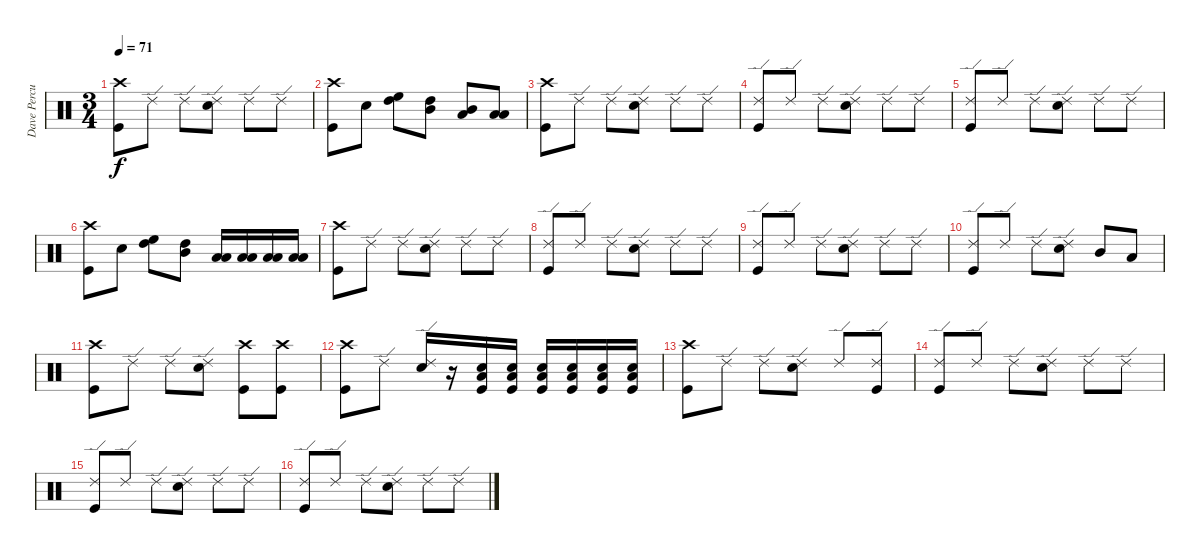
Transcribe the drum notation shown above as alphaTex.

\track ("Dave Percussions" "Dave Percu") {instrument percussion}
\staff {score}
\articulation defaults
\ts (3 4)
\tempo 71
\clef neutral
\ks c
("Crash high (hit)" "Kick (hit)").8{dy f} "Ride (edge) 2".8 "Ride (edge) 2".8 ("Ride (edge) 2" "Snare (hit) 2").8 "Ride (edge) 2".8 "Ride (edge) 2".8 |
("Crash high (hit)" "Kick (hit)").8 "Snare (hit) 2".8 ("High Tom (hit)" "High Floor Tom (hit)").8 ("Mid Tom (hit)" "High Tom (hit)").8 ("Low Tom (hit)" "Mid Tom (hit)").8 ("Low Floor Tom (hit)" "Low Tom (hit)").8 |
("Crash high (hit)" "Kick (hit)").8 "Ride (edge) 2".8 "Ride (edge) 2".8 ("Ride (edge) 2" "Snare (hit) 2").8 "Ride (edge) 2".8 "Ride (edge) 2".8 |
("Ride (edge) 2" "Kick (hit)").8 "Ride (edge) 2".8 "Ride (edge) 2".8 ("Ride (edge) 2" "Snare (hit) 2").8 "Ride (edge) 2".8 "Ride (edge) 2".8 |
("Ride (edge) 2" "Kick (hit)").8 "Ride (edge) 2".8 "Ride (edge) 2".8 ("Ride (edge) 2" "Snare (hit) 2").8 "Ride (edge) 2".8 "Ride (edge) 2".8 |
("Crash high (hit)" "Kick (hit)").8 "Snare (hit) 2".8 ("High Tom (hit)" "High Floor Tom (hit)").8 ("Mid Tom (hit)" "High Tom (hit)").8 ("Low Tom (hit)" "Low Tom (hit)").16 ("Low Floor Tom (hit)" "Low Tom (hit)").16 ("Low Floor Tom (hit)" "Low Tom (hit)").16 ("Low Floor Tom (hit)" "Low Tom (hit)").16 |
("Crash high (hit)" "Kick (hit)").8 "Ride (edge) 2".8 "Ride (edge) 2".8 ("Ride (edge) 2" "Snare (hit) 2").8 "Ride (edge) 2".8 "Ride (edge) 2".8 |
("Ride (edge) 2" "Kick (hit)").8 "Ride (edge) 2".8 "Ride (edge) 2".8 ("Ride (edge) 2" "Snare (hit) 2").8 "Ride (edge) 2".8 "Ride (edge) 2".8 |
("Ride (edge) 2" "Kick (hit)").8 "Ride (edge) 2".8 "Ride (edge) 2".8 ("Ride (edge) 2" "Snare (hit) 2").8 "Ride (edge) 2".8 "Ride (edge) 2".8 |
("Ride (edge) 2" "Kick (hit)").8 "Ride (edge) 2".8 "Ride (edge) 2".8 ("Ride (edge) 2" "Snare (hit) 2").8 "Mid Tom (hit)".8 "Low Tom (hit)".8 |
("Crash high (hit)" "Kick (hit)").8 "Ride (edge) 2".8 "Ride (edge) 2".8 ("Ride (edge) 2" "Snare (hit) 2").8 ("Crash high (hit)" "Kick (hit)").8 ("Crash high (hit)" "Kick (hit)").8 |
("Crash high (hit)" "Kick (hit)").8 "Ride (edge) 2".8 ("Ride (edge) 2" "Snare (hit) 2").16 r.16 ("Snare (hit) 2" "Kick (hit)" "Low Floor Tom (hit)").16 ("Snare (hit) 2" "Kick (hit)" "Low Floor Tom (hit)").16 ("Snare (hit) 2" "Kick (hit)" "Low Floor Tom (hit)").16 ("Snare (hit) 2" "Kick (hit)" "Low Floor Tom (hit)").16 ("Snare (hit) 2" "Kick (hit)" "Low Floor Tom (hit)").16 ("Snare (hit) 2" "Kick (hit)" "Low Floor Tom (hit)").16 |
("Crash high (hit)" "Kick (hit)").8 "Ride (edge) 2".8 "Ride (edge) 2".8 ("Ride (edge) 2" "Snare (hit) 2").8 "Ride (edge) 2".8 ("Ride (edge) 2" "Kick (hit)").8 |
("Ride (edge) 2" "Kick (hit)").8 "Ride (edge) 2".8 "Ride (edge) 2".8 ("Ride (edge) 2" "Snare (hit) 2").8 "Ride (edge) 2".8 "Ride (edge) 2".8 |
("Ride (edge) 2" "Kick (hit)").8 "Ride (edge) 2".8 "Ride (edge) 2".8 ("Ride (edge) 2" "Snare (hit) 2").8 "Ride (edge) 2".8 "Ride (edge) 2".8 |
("Ride (edge) 2" "Kick (hit)").8 "Ride (edge) 2".8 "Ride (edge) 2".8 ("Ride (edge) 2" "Snare (hit) 2").8 "Ride (edge) 2".8 "Ride (edge) 2".8
